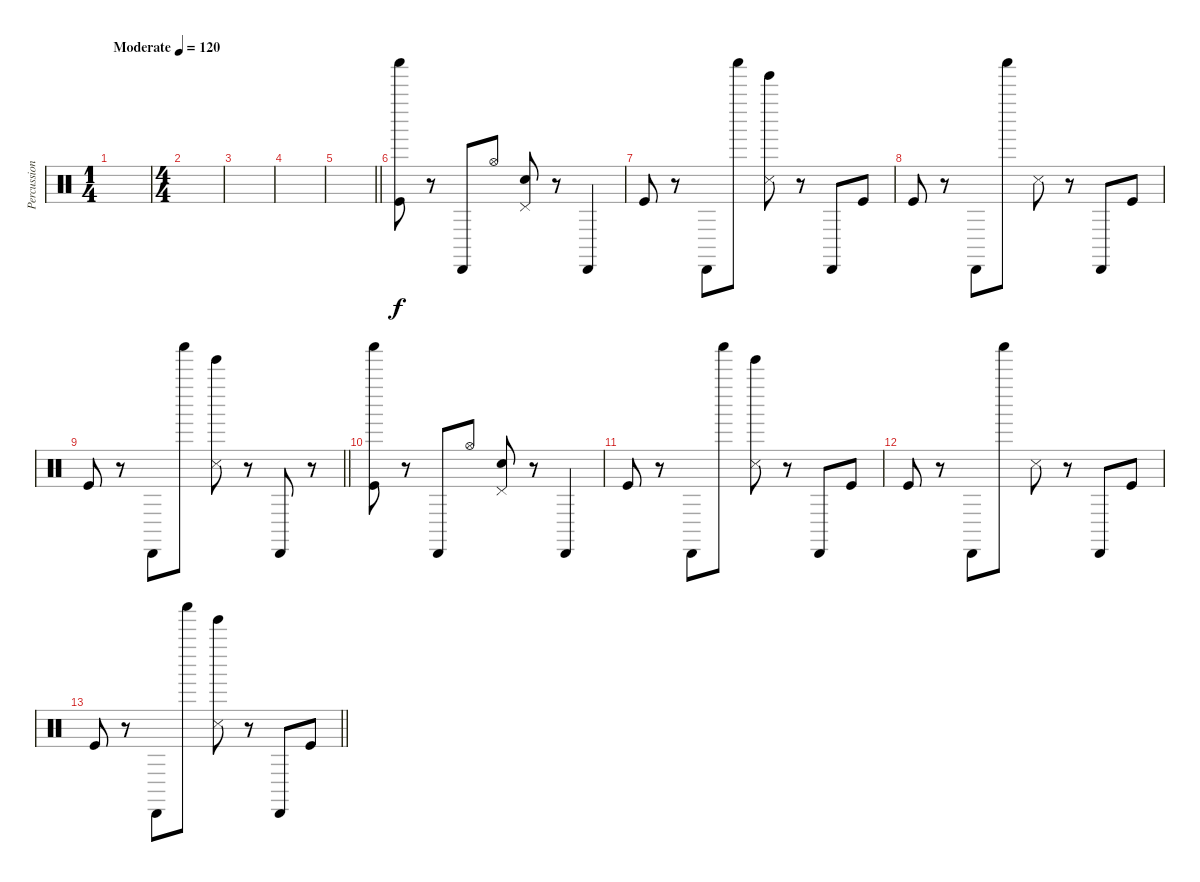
\track ("Percussion" "Percussion") {instrument percussion}
\staff {score}
\articulation defaults
\ts (1 4)
\tempo (120 "Moderate")
\clef neutral
\ks c
|
\ts (4 4)
|
|
|
\barLineRight lightlight
|
("Shaker (hit)" "Kick (hit)").8 r.8 "Cabasa (hit)".8 "Hi-Hat (open)".8 ("Pedal Hi-Hat (hit)" "Hand Clap (hit)").8 r.8 "Cabasa (hit)".4 |
"Kick (hit)".8 r.8 "Cabasa (hit)".8 "Shaker (hit)".8 ("Tinkle Bell (hit)" "Snare (side stick) 3").8 r.8 "Cabasa (hit)".8 "Kick (hit)".8 |
"Kick (hit)".8 r.8 "Cabasa (hit)".8 "Shaker (hit)".8 "Snare (side stick) 3".8 r.8 "Cabasa (hit)".8 "Kick (hit)".8 |
\barLineRight lightlight "Kick (hit)".8
r.8 "Cabasa (hit)".8 "Shaker (hit)".8 ("Tinkle Bell (hit)" "Snare (side stick) 3").8 r.8 "Cabasa (hit)".8 r.8 |
("Shaker (hit)" "Kick (hit)").8 r.8 "Cabasa (hit)".8 "Hi-Hat (open)".8 ("Pedal Hi-Hat (hit)" "Hand Clap (hit)").8 r.8 "Cabasa (hit)".4 |
"Kick (hit)".8 r.8 "Cabasa (hit)".8 "Shaker (hit)".8 ("Tinkle Bell (hit)" "Snare (side stick) 3").8 r.8 "Cabasa (hit)".8 "Kick (hit)".8 |
"Kick (hit)".8 r.8 "Cabasa (hit)".8 "Shaker (hit)".8 "Snare (side stick) 3".8 r.8 "Cabasa (hit)".8 "Kick (hit)".8 |
\barLineRight lightlight "Kick (hit)".8
r.8 "Cabasa (hit)".8 "Shaker (hit)".8 ("Tinkle Bell (hit)" "Snare (side stick) 3").8 r.8 "Cabasa (hit)".8 "Kick (hit)".8
